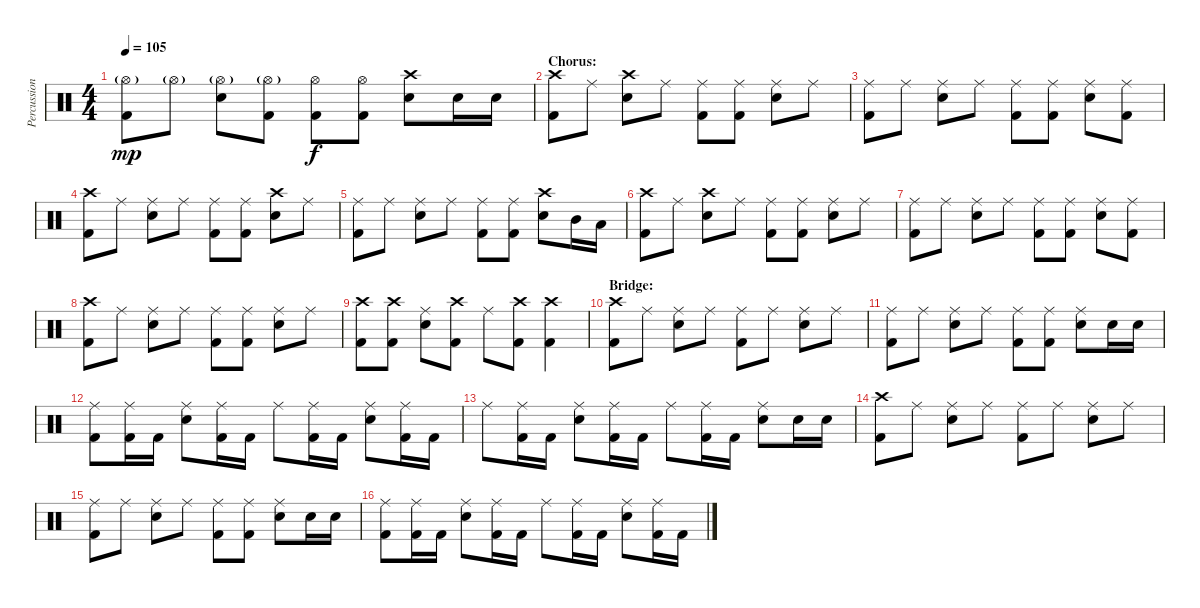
\track ("Percussion" "Percussion") {instrument percussion}
\staff {score}
\articulation defaults
\ts (4 4)
\tempo 105
\clef neutral
\ks c
("Hi-Hat (open)"{g} "Kick (hit) 2").8{dy mp} "Hi-Hat (open)"{g}.8 ("Hi-Hat (open)"{g} "Electric Snare (hit)").8 ("Hi-Hat (open)"{g} "Kick (hit) 2").8 ("Hi-Hat (open)" "Kick (hit) 2").8{dy f} ("Hi-Hat (open)" "Kick (hit) 2").8 ("Crash high (hit)" "Electric Snare (hit)").8 "Electric Snare (hit)".16 "Electric Snare (hit)".16 |
\section ("" "Chorus:")
("Crash high (hit)" "Kick (hit) 2").8 "Ride (middle)".8 ("Crash high (hit)" "Electric Snare (hit)").8 "Ride (middle)".8 ("Ride (middle)" "Kick (hit) 2").8 ("Ride (middle)" "Kick (hit) 2").8 ("Ride (middle)" "Electric Snare (hit)").8 "Ride (middle)".8 |
("Ride (middle)" "Kick (hit) 2").8 "Ride (middle)".8 ("Ride (middle)" "Electric Snare (hit)").8 "Ride (middle)".8 ("Ride (middle)" "Kick (hit) 2").8 ("Ride (middle)" "Kick (hit) 2").8 ("Ride (middle)" "Electric Snare (hit)").8 ("Ride (middle)" "Kick (hit) 2").8 |
("Crash high (hit)" "Kick (hit) 2").8 "Ride (middle)".8 ("Ride (middle)" "Electric Snare (hit)").8 "Ride (middle)".8 ("Ride (middle)" "Kick (hit) 2").8 ("Ride (middle)" "Kick (hit) 2").8 ("Crash high (hit)" "Electric Snare (hit)").8 "Ride (middle)".8 |
("Ride (middle)" "Kick (hit) 2").8 "Ride (middle)".8 ("Ride (middle)" "Electric Snare (hit)").8 "Ride (middle)".8 ("Ride (middle)" "Kick (hit) 2").8 ("Ride (middle)" "Kick (hit) 2").8 ("Crash high (hit)" "Electric Snare (hit)").8 "Mid Tom (hit)".16 "Low Tom (hit)".16 |
("Crash high (hit)" "Kick (hit) 2").8 "Ride (middle)".8 ("Crash high (hit)" "Electric Snare (hit)").8 "Ride (middle)".8 ("Ride (middle)" "Kick (hit) 2").8 ("Ride (middle)" "Kick (hit) 2").8 ("Ride (middle)" "Electric Snare (hit)").8 "Ride (middle)".8 |
("Ride (middle)" "Kick (hit) 2").8 "Ride (middle)".8 ("Ride (middle)" "Electric Snare (hit)").8 "Ride (middle)".8 ("Ride (middle)" "Kick (hit) 2").8 ("Ride (middle)" "Kick (hit) 2").8 ("Ride (middle)" "Electric Snare (hit)").8 ("Ride (middle)" "Kick (hit) 2").8 |
("Crash high (hit)" "Kick (hit) 2").8 "Ride (middle)".8 ("Ride (middle)" "Electric Snare (hit)").8 "Ride (middle)".8 ("Ride (middle)" "Kick (hit) 2").8 ("Ride (middle)" "Kick (hit) 2").8 ("Ride (middle)" "Electric Snare (hit)").8 "Ride (middle)".8 |
("Crash high (hit)" "Kick (hit) 2").8 ("Crash high (hit)" "Kick (hit) 2").8 ("Ride (middle)" "Electric Snare (hit)").8 ("Crash high (hit)" "Kick (hit) 2").8 "Ride (middle)".8 ("Crash high (hit)" "Kick (hit) 2").8 ("Crash high (hit)" "Kick (hit) 2").4 |
\section ("" "Bridge:")
("Crash high (hit)" "Kick (hit) 2").8 "Ride (middle)".8 ("Ride (middle)" "Electric Snare (hit)").8 "Ride (middle)".8 ("Ride (middle)" "Kick (hit) 2").8 "Ride (middle)".8 ("Ride (middle)" "Electric Snare (hit)").8 "Ride (middle)".8 |
("Ride (middle)" "Kick (hit) 2").8 "Ride (middle)".8 ("Ride (middle)" "Electric Snare (hit)").8 "Ride (middle)".8 ("Ride (middle)" "Kick (hit) 2").8 ("Ride (middle)" "Kick (hit) 2").8 ("Ride (middle)" "Electric Snare (hit)").8 "Electric Snare (hit)".16 "Electric Snare (hit)".16 |
("Ride (middle)" "Kick (hit) 2").8 ("Ride (middle)" "Kick (hit) 2").16 "Kick (hit) 2".16 ("Ride (middle)" "Electric Snare (hit)").8 ("Ride (middle)" "Kick (hit) 2").16 "Kick (hit) 2".16 "Ride (middle)".8 ("Ride (middle)" "Kick (hit) 2").16 "Kick (hit) 2".16 ("Ride (middle)" "Electric Snare (hit)").8 ("Ride (middle)" "Kick (hit) 2").16 "Kick (hit) 2".16 |
"Ride (middle)".8 ("Ride (middle)" "Kick (hit) 2").16 "Kick (hit) 2".16 ("Ride (middle)" "Electric Snare (hit)").8 ("Ride (middle)" "Kick (hit) 2").16 "Kick (hit) 2".16 "Ride (middle)".8 ("Ride (middle)" "Kick (hit) 2").16 "Kick (hit) 2".16 ("Ride (middle)" "Electric Snare (hit)").8 "Electric Snare (hit)".16 "Electric Snare (hit)".16 |
("Crash high (hit)" "Kick (hit) 2").8 "Ride (middle)".8 ("Ride (middle)" "Electric Snare (hit)").8 "Ride (middle)".8 ("Ride (middle)" "Kick (hit) 2").8 "Ride (middle)".8 ("Ride (middle)" "Electric Snare (hit)").8 "Ride (middle)".8 |
("Ride (middle)" "Kick (hit) 2").8 "Ride (middle)".8 ("Ride (middle)" "Electric Snare (hit)").8 "Ride (middle)".8 ("Ride (middle)" "Kick (hit) 2").8 ("Ride (middle)" "Kick (hit) 2").8 ("Ride (middle)" "Electric Snare (hit)").8 "Electric Snare (hit)".16 "Electric Snare (hit)".16 |
("Ride (middle)" "Kick (hit) 2").8 ("Ride (middle)" "Kick (hit) 2").16 "Kick (hit) 2".16 ("Ride (middle)" "Electric Snare (hit)").8 ("Ride (middle)" "Kick (hit) 2").16 "Kick (hit) 2".16 "Ride (middle)".8 ("Ride (middle)" "Kick (hit) 2").16 "Kick (hit) 2".16 ("Ride (middle)" "Electric Snare (hit)").8 ("Ride (middle)" "Kick (hit) 2").16 "Kick (hit) 2".16
